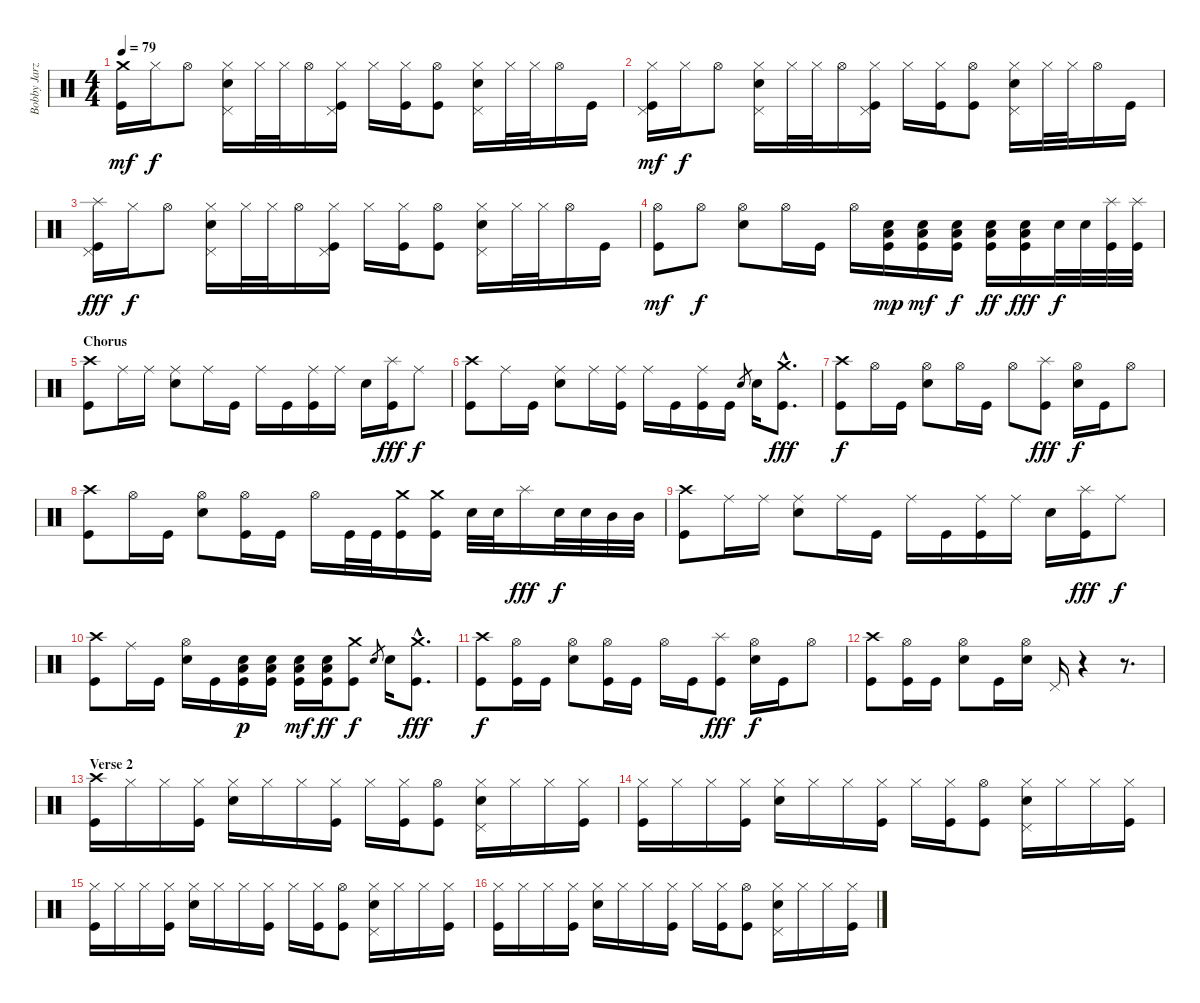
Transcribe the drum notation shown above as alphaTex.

\track ("Bobby Jarzombek" "Bobby Jarz") {instrument percussion}
\staff {score}
\articulation defaults
\ts (4 4)
\tempo 79
\clef neutral
\ks c
("Crash medium (hit)" "Kick (hit)").16{dy mf} "Hi-Hat (closed)".16{dy f} "Hi-Hat (open)".8 ("Hi-Hat (closed)" "Electric Snare (hit)" "Pedal Hi-Hat (hit)").16 "Hi-Hat (closed)".32 "Hi-Hat (closed)".32 "Hi-Hat (open)".16 ("Hi-Hat (closed)" "Pedal Hi-Hat (hit)" "Kick (hit)").16 "Hi-Hat (closed)".16 ("Hi-Hat (closed)" "Kick (hit)").16 ("Hi-Hat (open)" "Kick (hit)").8 ("Hi-Hat (closed)" "Electric Snare (hit)" "Pedal Hi-Hat (hit)").16 "Hi-Hat (closed)".32 "Hi-Hat (closed)".32 "Hi-Hat (open)".16 "Kick (hit)".16 |
("Hi-Hat (closed)" "Pedal Hi-Hat (hit)" "Kick (hit)").16{dy mf} "Hi-Hat (closed)".16{dy f} "Hi-Hat (open)".8 ("Hi-Hat (closed)" "Electric Snare (hit)" "Pedal Hi-Hat (hit)").16 "Hi-Hat (closed)".32 "Hi-Hat (closed)".32 "Hi-Hat (open)".16 ("Hi-Hat (closed)" "Pedal Hi-Hat (hit)" "Kick (hit)").16 "Hi-Hat (closed)".16 ("Hi-Hat (closed)" "Kick (hit)").16 ("Hi-Hat (open)" "Kick (hit)").8 ("Hi-Hat (closed)" "Electric Snare (hit)" "Pedal Hi-Hat (hit)").16 "Hi-Hat (closed)".32 "Hi-Hat (closed)".32 "Hi-Hat (open)".16 "Kick (hit)".16 |
("Splash (hit)" "Pedal Hi-Hat (hit)" "Kick (hit)").16{dy fff} "Hi-Hat (closed)".16{dy f} "Hi-Hat (open)".8 ("Hi-Hat (closed)" "Electric Snare (hit)" "Pedal Hi-Hat (hit)").16 "Hi-Hat (closed)".32 "Hi-Hat (closed)".32 "Hi-Hat (open)".16 ("Hi-Hat (closed)" "Pedal Hi-Hat (hit)" "Kick (hit)").16 "Hi-Hat (closed)".16 ("Hi-Hat (closed)" "Kick (hit)").16 ("Hi-Hat (open)" "Kick (hit)").8 ("Hi-Hat (closed)" "Electric Snare (hit)" "Pedal Hi-Hat (hit)").16 "Hi-Hat (closed)".32 "Hi-Hat (closed)".32 "Hi-Hat (open)".16 "Kick (hit)".16 |
("Hi-Hat (open)" "Kick (hit)").8{dy mf} "Hi-Hat (open)".8{dy f} ("Hi-Hat (open)" "Electric Snare (hit)").8 "Hi-Hat (open)".16 "Kick (hit)".16 "Hi-Hat (open)".16 ("Low Tom (hit)" "Electric Snare (hit)" "Kick (hit)").16{dy mp} ("Low Tom (hit)" "Electric Snare (hit)" "Kick (hit)").16{dy mf} ("Low Tom (hit)" "Electric Snare (hit)" "Kick (hit)").16{dy f} ("Low Tom (hit)" "Electric Snare (hit)" "Kick (hit)").16{dy ff} ("Low Tom (hit)" "Electric Snare (hit)" "Kick (hit)").16{dy fff} "Electric Snare (hit)".32{dy f} "Electric Snare (hit)".32 ("Splash (hit)" "Kick (hit)").32 ("Splash (hit)" "Kick (hit)").32 |
\section ("" "Chorus")
("Crash high (hit)" "Kick (hit)").8 "Ride (middle)".16 "Ride (middle)".16 ("Ride (middle)" "Electric Snare (hit)").8 "Ride (middle)".16 "Kick (hit)".16 "Ride (middle)".16 "Kick (hit)".16 ("Ride (middle)" "Kick (hit)").16 "Ride (middle)".16 "Electric Snare (hit)".16 ("Splash (hit)" "Kick (hit)").16{dy fff} "Ride (middle)".8{dy f} |
("Crash high (hit)" "Kick (hit)").8 "Ride (middle)".16 "Kick (hit)".16 ("Ride (middle)" "Electric Snare (hit)").8 "Ride (middle)".16 ("Ride (middle)" "Kick (hit)").16 "Ride (middle)".16 "Kick (hit)".16 ("Ride (middle)" "Kick (hit)").16 "Kick (hit)".16 "Electric Snare (hit)".8{gr} "Electric Snare (hit)".16 ("Crash medium (hit)"{hac} "Kick (hit)"{hac}).8{d dy fff} |
("Crash high (hit)" "Kick (hit)").8{dy f} "Hi-Hat (open)".16 "Kick (hit)".16 ("Hi-Hat (open)" "Electric Snare (hit)").8 "Hi-Hat (open)".16 "Kick (hit)".16 "Hi-Hat (open)".8 ("Splash (hit)" "Kick (hit)").8{dy fff} ("Hi-Hat (open)" "Electric Snare (hit)").16{dy f} "Kick (hit)".16 "Hi-Hat (open)".8 |
("Crash high (hit)" "Kick (hit)").8 "Hi-Hat (open)".16 "Kick (hit)".16 ("Hi-Hat (open)" "Electric Snare (hit)").8 ("Hi-Hat (open)" "Kick (hit)").16 "Kick (hit)".16 "Hi-Hat (open)".16 "Kick (hit)".32 "Kick (hit)".32 ("Crash medium (hit)" "Kick (hit)").16 ("Crash medium (hit)" "Kick (hit)").16 "Electric Snare (hit)".32 "Electric Snare (hit)".32 "Splash (hit)".16{dy fff} "Electric Snare (hit)".32{dy f} "Electric Snare (hit)".32 "Mid Tom (hit)".32 "Mid Tom (hit)".32 |
("Crash high (hit)" "Kick (hit)").8 "Ride (middle)".16 "Ride (middle)".16 ("Ride (middle)" "Electric Snare (hit)").8 "Ride (middle)".16 "Kick (hit)".16 "Ride (middle)".16 "Kick (hit)".16 ("Ride (middle)" "Kick (hit)").16 "Ride (middle)".16 "Electric Snare (hit)".16 ("Splash (hit)" "Kick (hit)").16{dy fff} "Ride (middle)".8{dy f} |
("Crash high (hit)" "Kick (hit)").8 "Ride (middle)".16 "Kick (hit)".16 ("Hi-Hat (open)" "Electric Snare (hit)").16 "Kick (hit)".16 ("Low Tom (hit)" "Electric Snare (hit)" "Kick (hit)").16{dy p} ("Low Tom (hit)" "Electric Snare (hit)" "Kick (hit)").16 ("Low Tom (hit)" "Electric Snare (hit)" "Kick (hit)").16{dy mf} ("Low Tom (hit)" "Electric Snare (hit)" "Kick (hit)").16{dy ff} ("Crash medium (hit)" "Kick (hit)").8{dy f} "Electric Snare (hit)".8{gr} "Electric Snare (hit)".16 ("Crash medium (hit)"{hac} "Kick (hit)"{hac}).8{d dy fff} |
("Crash high (hit)" "Kick (hit)").8{dy f} ("Hi-Hat (open)" "Kick (hit)").16 "Kick (hit)".16 ("Hi-Hat (open)" "Electric Snare (hit)").8 ("Hi-Hat (open)" "Kick (hit)").16 "Kick (hit)".16 "Hi-Hat (open)".16 "Kick (hit)".16 ("Splash (hit)" "Kick (hit)").8{dy fff} ("Hi-Hat (open)" "Electric Snare (hit)").16{dy f} "Kick (hit)".16 "Hi-Hat (open)".8 |
("Crash high (hit)" "Kick (hit)").8 ("Hi-Hat (open)" "Kick (hit)").16 "Kick (hit)".16 ("Hi-Hat (open)" "Electric Snare (hit)").8 "Kick (hit)".16 ("Hi-Hat (open)" "Electric Snare (hit)").16 "Pedal Hi-Hat (hit)".16 r.4 r.8{d} |
\section ("" "Verse 2")
("Crash high (hit)" "Kick (hit)").16 "Hi-Hat (closed)".16 "Hi-Hat (closed)".16 ("Hi-Hat (closed)" "Kick (hit)").16 ("Hi-Hat (closed)" "Electric Snare (hit)").16 "Hi-Hat (closed)".16 "Hi-Hat (closed)".16 ("Hi-Hat (closed)" "Kick (hit)").16 "Hi-Hat (closed)".16 ("Hi-Hat (closed)" "Kick (hit)").16 ("Hi-Hat (open)" "Kick (hit)").8 ("Hi-Hat (closed)" "Electric Snare (hit)" "Pedal Hi-Hat (hit)").16 "Hi-Hat (closed)".16 "Hi-Hat (closed)".16 ("Hi-Hat (closed)" "Kick (hit)").16 |
("Hi-Hat (closed)" "Kick (hit)").16 "Hi-Hat (closed)".16 "Hi-Hat (closed)".16 ("Hi-Hat (closed)" "Kick (hit)").16 ("Hi-Hat (closed)" "Electric Snare (hit)").16 "Hi-Hat (closed)".16 "Hi-Hat (closed)".16 ("Hi-Hat (closed)" "Kick (hit)").16 "Hi-Hat (closed)".16 ("Hi-Hat (closed)" "Kick (hit)").16 ("Hi-Hat (open)" "Kick (hit)").8 ("Hi-Hat (closed)" "Electric Snare (hit)" "Pedal Hi-Hat (hit)").16 "Hi-Hat (closed)".16 "Hi-Hat (closed)".16 ("Hi-Hat (closed)" "Kick (hit)").16 |
("Hi-Hat (closed)" "Kick (hit)").16 "Hi-Hat (closed)".16 "Hi-Hat (closed)".16 ("Hi-Hat (closed)" "Kick (hit)").16 ("Hi-Hat (closed)" "Electric Snare (hit)").16 "Hi-Hat (closed)".16 "Hi-Hat (closed)".16 ("Hi-Hat (closed)" "Kick (hit)").16 "Hi-Hat (closed)".16 ("Hi-Hat (closed)" "Kick (hit)").16 ("Hi-Hat (open)" "Kick (hit)").8 ("Hi-Hat (closed)" "Electric Snare (hit)" "Pedal Hi-Hat (hit)").16 "Hi-Hat (closed)".16 "Hi-Hat (closed)".16 ("Hi-Hat (closed)" "Kick (hit)").16 |
("Hi-Hat (closed)" "Kick (hit)").16 "Hi-Hat (closed)".16 "Hi-Hat (closed)".16 ("Hi-Hat (closed)" "Kick (hit)").16 ("Hi-Hat (closed)" "Electric Snare (hit)").16 "Hi-Hat (closed)".16 "Hi-Hat (closed)".16 ("Hi-Hat (closed)" "Kick (hit)").16 "Hi-Hat (closed)".16 ("Hi-Hat (closed)" "Kick (hit)").16 ("Hi-Hat (open)" "Kick (hit)").8 ("Hi-Hat (closed)" "Electric Snare (hit)" "Pedal Hi-Hat (hit)").16 "Hi-Hat (closed)".16 "Hi-Hat (closed)".16 ("Hi-Hat (closed)" "Kick (hit)").16
